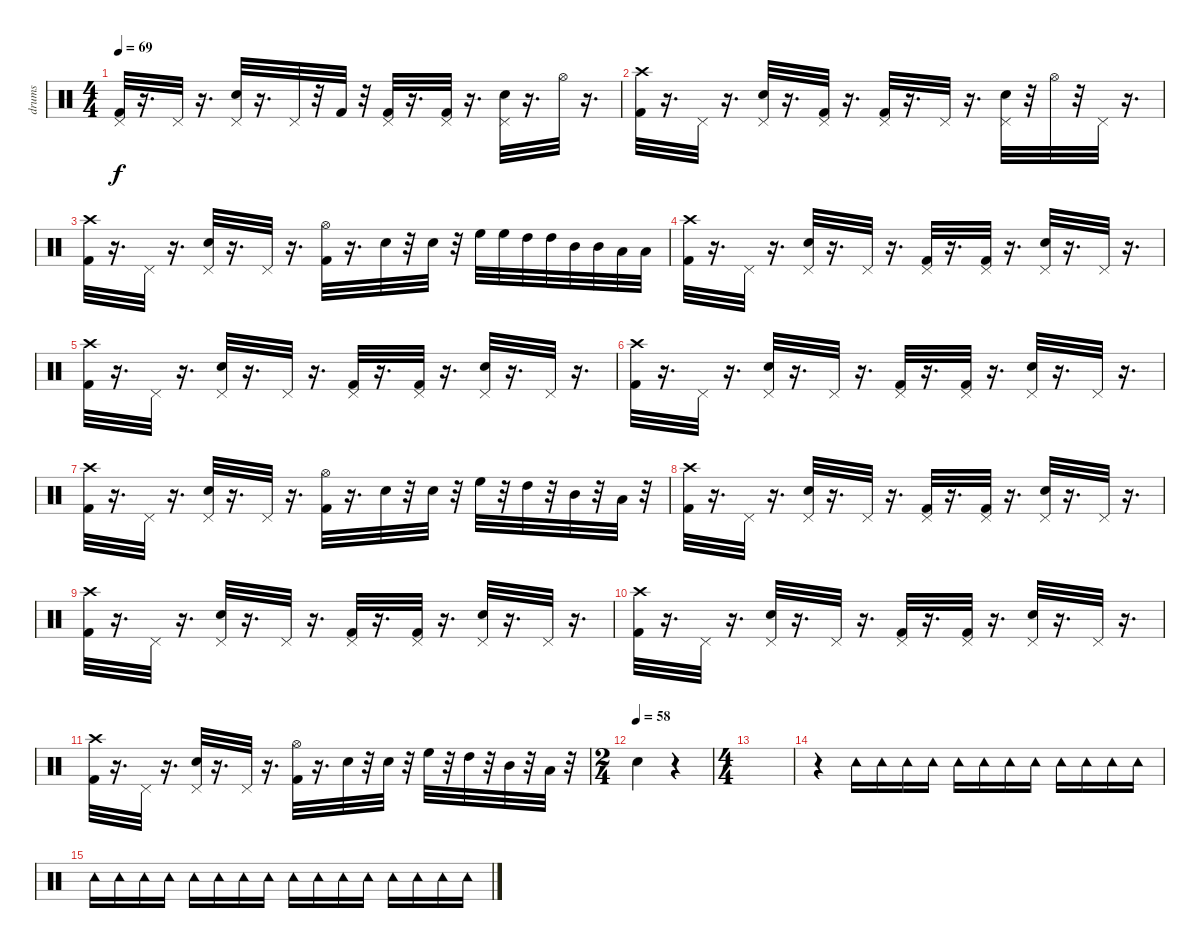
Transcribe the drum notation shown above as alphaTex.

\track ("drums" "drums") {instrument percussion}
\staff {score}
\articulation defaults
\ts (4 4)
\tempo 69
\clef neutral
\ks c
("Pedal Hi-Hat (hit)" "Kick (hit) 2").32{dy f} r.16{d} "Pedal Hi-Hat (hit)".32 r.16{d} ("Pedal Hi-Hat (hit)" "Snare (hit) 2").32 r.16{d} "Pedal Hi-Hat (hit)".32 r.32 "Kick (hit) 2".32 r.32 ("Pedal Hi-Hat (hit)" "Kick (hit) 2").32 r.16{d} ("Pedal Hi-Hat (hit)" "Kick (hit) 2").32 r.16{d} ("Pedal Hi-Hat (hit)" "Snare (hit) 2").32 r.16{d} "Hi-Hat (open)".32 r.16{d} |
("Crash high (hit)" "Kick (hit) 2").32 r.16{d} "Pedal Hi-Hat (hit)".32 r.16{d} ("Pedal Hi-Hat (hit)" "Snare (hit) 2").32 r.16{d} ("Pedal Hi-Hat (hit)" "Kick (hit) 2").32 r.16{d} ("Pedal Hi-Hat (hit)" "Kick (hit) 2").32 r.16{d} "Pedal Hi-Hat (hit)".32 r.16{d} ("Pedal Hi-Hat (hit)" "Snare (hit) 2").32 r.32 "Hi-Hat (open)".32 r.32 "Pedal Hi-Hat (hit)".32 r.16{d} |
("Crash high (hit)" "Kick (hit) 2").32 r.16{d} "Pedal Hi-Hat (hit)".32 r.16{d} ("Pedal Hi-Hat (hit)" "Snare (hit) 2").32 r.16{d} "Pedal Hi-Hat (hit)".32 r.16{d} ("Hi-Hat (open)" "Kick (hit) 2").32 r.16{d} "Snare (hit) 2".32 r.32 "Snare (hit) 2".32 r.32 "High Floor Tom (hit)".32 "High Floor Tom (hit)".32 "High Tom (hit)".32 "High Tom (hit)".32 "Mid Tom (hit)".32 "Mid Tom (hit)".32 "Low Tom (hit)".32 "Low Tom (hit)".32 |
("Crash high (hit)" "Kick (hit) 2").32 r.16{d} "Pedal Hi-Hat (hit)".32 r.16{d} ("Pedal Hi-Hat (hit)" "Snare (hit) 2").32 r.16{d} "Pedal Hi-Hat (hit)".32 r.16{d} ("Pedal Hi-Hat (hit)" "Kick (hit) 2").32 r.16{d} ("Pedal Hi-Hat (hit)" "Kick (hit) 2").32 r.16{d} ("Pedal Hi-Hat (hit)" "Snare (hit) 2").32 r.16{d} "Pedal Hi-Hat (hit)".32 r.16{d} |
("Crash high (hit)" "Kick (hit) 2").32 r.16{d} "Pedal Hi-Hat (hit)".32 r.16{d} ("Pedal Hi-Hat (hit)" "Snare (hit) 2").32 r.16{d} "Pedal Hi-Hat (hit)".32 r.16{d} ("Pedal Hi-Hat (hit)" "Kick (hit) 2").32 r.16{d} ("Pedal Hi-Hat (hit)" "Kick (hit) 2").32 r.16{d} ("Pedal Hi-Hat (hit)" "Snare (hit) 2").32 r.16{d} "Pedal Hi-Hat (hit)".32 r.16{d} |
("Crash high (hit)" "Kick (hit) 2").32 r.16{d} "Pedal Hi-Hat (hit)".32 r.16{d} ("Pedal Hi-Hat (hit)" "Snare (hit) 2").32 r.16{d} "Pedal Hi-Hat (hit)".32 r.16{d} ("Pedal Hi-Hat (hit)" "Kick (hit) 2").32 r.16{d} ("Pedal Hi-Hat (hit)" "Kick (hit) 2").32 r.16{d} ("Pedal Hi-Hat (hit)" "Snare (hit) 2").32 r.16{d} "Pedal Hi-Hat (hit)".32 r.16{d} |
("Crash high (hit)" "Kick (hit) 2").32 r.16{d} "Pedal Hi-Hat (hit)".32 r.16{d} ("Pedal Hi-Hat (hit)" "Snare (hit) 2").32 r.16{d} "Pedal Hi-Hat (hit)".32 r.16{d} ("Hi-Hat (open)" "Kick (hit) 2").32 r.16{d} "Snare (hit) 2".32 r.32 "Snare (hit) 2".32 r.32 "High Floor Tom (hit)".32 r.32 "High Tom (hit)".32 r.32 "Mid Tom (hit)".32 r.32 "Low Tom (hit)".32 r.32 |
("Crash high (hit)" "Kick (hit) 2").32 r.16{d} "Pedal Hi-Hat (hit)".32 r.16{d} ("Pedal Hi-Hat (hit)" "Snare (hit) 2").32 r.16{d} "Pedal Hi-Hat (hit)".32 r.16{d} ("Pedal Hi-Hat (hit)" "Kick (hit) 2").32 r.16{d} ("Pedal Hi-Hat (hit)" "Kick (hit) 2").32 r.16{d} ("Pedal Hi-Hat (hit)" "Snare (hit) 2").32 r.16{d} "Pedal Hi-Hat (hit)".32 r.16{d} |
("Crash high (hit)" "Kick (hit) 2").32 r.16{d} "Pedal Hi-Hat (hit)".32 r.16{d} ("Pedal Hi-Hat (hit)" "Snare (hit) 2").32 r.16{d} "Pedal Hi-Hat (hit)".32 r.16{d} ("Pedal Hi-Hat (hit)" "Kick (hit) 2").32 r.16{d} ("Pedal Hi-Hat (hit)" "Kick (hit) 2").32 r.16{d} ("Pedal Hi-Hat (hit)" "Snare (hit) 2").32 r.16{d} "Pedal Hi-Hat (hit)".32 r.16{d} |
("Crash high (hit)" "Kick (hit) 2").32 r.16{d} "Pedal Hi-Hat (hit)".32 r.16{d} ("Pedal Hi-Hat (hit)" "Snare (hit) 2").32 r.16{d} "Pedal Hi-Hat (hit)".32 r.16{d} ("Pedal Hi-Hat (hit)" "Kick (hit) 2").32 r.16{d} ("Pedal Hi-Hat (hit)" "Kick (hit) 2").32 r.16{d} ("Pedal Hi-Hat (hit)" "Snare (hit) 2").32 r.16{d} "Pedal Hi-Hat (hit)".32 r.16{d} |
("Crash high (hit)" "Kick (hit) 2").32 r.16{d} "Pedal Hi-Hat (hit)".32 r.16{d} ("Pedal Hi-Hat (hit)" "Snare (hit) 2").32 r.16{d} "Pedal Hi-Hat (hit)".32 r.16{d} ("Hi-Hat (open)" "Kick (hit) 2").32 r.16{d} "Snare (hit) 2".32 r.32 "Snare (hit) 2".32 r.32 "High Floor Tom (hit)".32 r.32 "High Tom (hit)".32 r.32 "Mid Tom (hit)".32 r.32 "Low Tom (hit)".32 r.32 |
\ts (2 4)
\tempo (58)
"Snare (hit) 2".4 r.4 |
\ts (4 4)
|
r.4 "Tambourine (hit)".16 "Tambourine (hit)".16 "Tambourine (hit)".16 "Tambourine (hit)".16 "Tambourine (hit)".16 "Tambourine (hit)".16 "Tambourine (hit)".16 "Tambourine (hit)".16 "Tambourine (hit)".16 "Tambourine (hit)".16 "Tambourine (hit)".16 "Tambourine (hit)".16 |
"Tambourine (hit)".16{volume 2} "Tambourine (hit)".16 "Tambourine (hit)".16 "Tambourine (hit)".16 "Tambourine (hit)".16 "Tambourine (hit)".16 "Tambourine (hit)".16 "Tambourine (hit)".16 "Tambourine (hit)".16 "Tambourine (hit)".16 "Tambourine (hit)".16 "Tambourine (hit)".16 "Tambourine (hit)".16 "Tambourine (hit)".16 "Tambourine (hit)".16 "Tambourine (hit)".16
